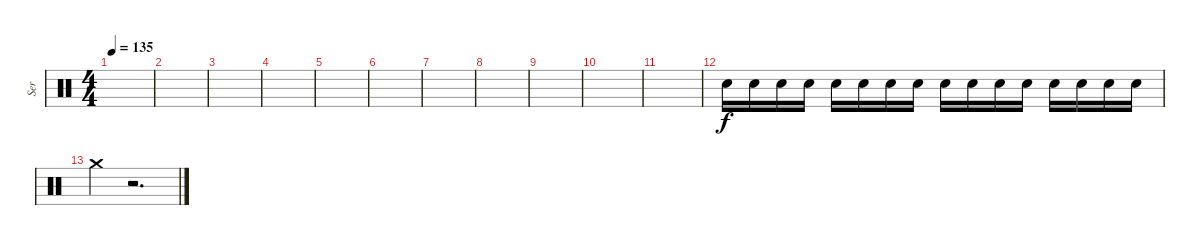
\track ("Ser" "Ser") {instrument percussion}
\staff {score}
\articulation defaults
\ts (4 4)
\tempo 135
\clef neutral
\ks c
|
|
|
|
|
|
|
|
|
|
|
"Electric Snare (hit)".16 "Electric Snare (hit)".16 "Electric Snare (hit)".16 "Electric Snare (hit)".16 "Electric Snare (hit)".16 "Electric Snare (hit)".16 "Electric Snare (hit)".16 "Electric Snare (hit)".16 "Electric Snare (hit)".16 "Electric Snare (hit)".16 "Electric Snare (hit)".16 "Electric Snare (hit)".16 "Electric Snare (hit)".16 "Electric Snare (hit)".16 "Electric Snare (hit)".16 "Electric Snare (hit)".16 |
"Crash medium (hit)".4{dy f} r.2{d}
